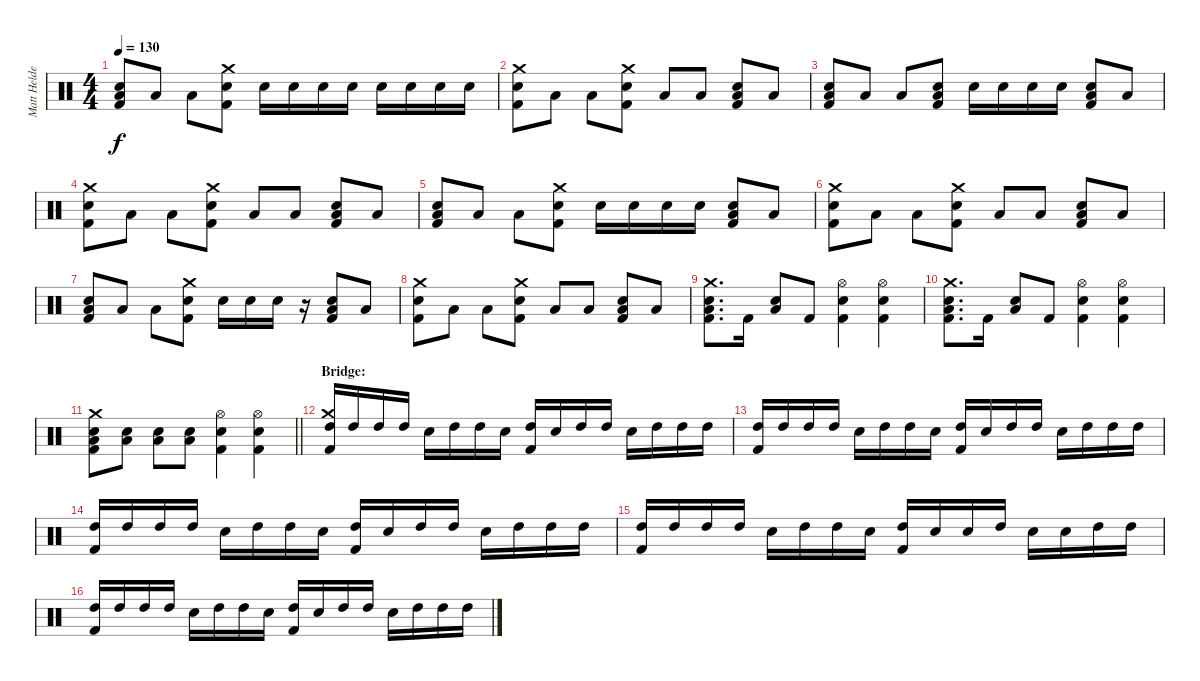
\track ("Matt Helders (Percussion)" "Matt Helde") {instrument percussion}
\staff {score}
\articulation defaults
\ts (4 4)
\tempo 130
\clef neutral
\ks c
("Low Tom (hit)" "Snare (hit) 2" "Kick (hit) 2").8{dy f} "Low Tom (hit)".8 "Low Tom (hit)".8 ("Crash medium (hit)" "Snare (hit) 2" "Kick (hit) 2").8 "Snare (hit) 2".16 "Snare (hit) 2".16 "Snare (hit) 2".16 "Snare (hit) 2".16 "Snare (hit) 2".16 "Snare (hit) 2".16 "Snare (hit) 2".16 "Snare (hit) 2".16 |
("Crash medium (hit)" "Snare (hit) 2" "Kick (hit) 2").8 "Low Tom (hit)".8 "Low Tom (hit)".8 ("Crash medium (hit)" "Snare (hit) 2" "Kick (hit) 2").8 "Low Tom (hit)".8 "Low Tom (hit)".8 ("Low Tom (hit)" "Snare (hit) 2" "Kick (hit) 2").8 "Low Tom (hit)".8 |
("Low Tom (hit)" "Snare (hit) 2" "Kick (hit) 2").8 "Low Tom (hit)".8 "Low Tom (hit)".8 ("Low Tom (hit)" "Snare (hit) 2" "Kick (hit) 2").8 "Snare (hit) 2".16 "Snare (hit) 2".16 "Snare (hit) 2".16 "Snare (hit) 2".16 ("Low Tom (hit)" "Snare (hit) 2" "Kick (hit) 2").8 "Low Tom (hit)".8 |
("Crash medium (hit)" "Snare (hit) 2" "Kick (hit) 2").8 "Low Tom (hit)".8 "Low Tom (hit)".8 ("Crash medium (hit)" "Snare (hit) 2" "Kick (hit) 2").8 "Low Tom (hit)".8 "Low Tom (hit)".8 ("Low Tom (hit)" "Snare (hit) 2" "Kick (hit) 2").8 "Low Tom (hit)".8 |
("Low Tom (hit)" "Snare (hit) 2" "Kick (hit) 2").8 "Low Tom (hit)".8 "Low Tom (hit)".8 ("Crash medium (hit)" "Snare (hit) 2" "Kick (hit) 2").8 "Snare (hit) 2".16 "Snare (hit) 2".16 "Snare (hit) 2".16 "Snare (hit) 2".16 ("Low Tom (hit)" "Snare (hit) 2" "Kick (hit) 2").8 "Low Tom (hit)".8 |
("Crash medium (hit)" "Snare (hit) 2" "Kick (hit) 2").8 "Low Tom (hit)".8 "Low Tom (hit)".8 ("Crash medium (hit)" "Snare (hit) 2" "Kick (hit) 2").8 "Low Tom (hit)".8 "Low Tom (hit)".8 ("Low Tom (hit)" "Snare (hit) 2" "Kick (hit) 2").8 "Low Tom (hit)".8 |
("Low Tom (hit)" "Snare (hit) 2" "Kick (hit) 2").8 "Low Tom (hit)".8 "Low Tom (hit)".8 ("Crash medium (hit)" "Snare (hit) 2" "Kick (hit) 2").8 "Snare (hit) 2".16 "Snare (hit) 2".16 "Snare (hit) 2".16 r.16 ("Low Tom (hit)" "Snare (hit) 2" "Kick (hit) 2").8 "Low Tom (hit)".8 |
("Crash medium (hit)" "Snare (hit) 2" "Kick (hit) 2").8 "Low Tom (hit)".8 "Low Tom (hit)".8 ("Crash medium (hit)" "Snare (hit) 2" "Kick (hit) 2").8 "Low Tom (hit)".8 "Low Tom (hit)".8 ("Low Tom (hit)" "Snare (hit) 2" "Kick (hit) 2").8 "Low Tom (hit)".8 |
("Crash medium (hit)" "Low Tom (hit)" "Snare (hit) 2" "Kick (hit) 2").8{d} "Kick (hit) 2".16 ("Low Tom (hit)" "Snare (hit) 2").8 "Kick (hit) 2".8 ("Hi-Hat (open)" "Snare (hit) 2" "Kick (hit) 2").4 ("Hi-Hat (open)" "Snare (hit) 2" "Kick (hit) 2").4 |
("Crash medium (hit)" "Low Tom (hit)" "Snare (hit) 2" "Kick (hit) 2").8{d} "Kick (hit) 2".16 ("Low Tom (hit)" "Snare (hit) 2").8 "Kick (hit) 2".8 ("Hi-Hat (open)" "Snare (hit) 2" "Kick (hit) 2").4 ("Hi-Hat (open)" "Snare (hit) 2" "Kick (hit) 2").4 |
\barLineRight lightlight
("Crash medium (hit)" "Low Tom (hit)" "Snare (hit) 2" "Kick (hit) 2").8 ("Low Tom (hit)" "Snare (hit) 2").8 ("Low Tom (hit)" "Snare (hit) 2").8 ("Low Tom (hit)" "Snare (hit) 2").8 ("Hi-Hat (open)" "Snare (hit) 2" "Kick (hit) 2").4 ("Hi-Hat (open)" "Snare (hit) 2" "Kick (hit) 2").4 |
\section ("" "Bridge:")
("Crash medium (hit)" "High Tom (hit)" "Kick (hit) 2").16 "High Tom (hit)".16 "High Tom (hit)".16 "High Tom (hit)".16 "Snare (hit) 2".16 "High Tom (hit)".16 "High Tom (hit)".16 "Snare (hit) 2".16 ("High Tom (hit)" "Kick (hit) 2").16 "Snare (hit) 2".16 "High Tom (hit)".16 "High Tom (hit)".16 "Snare (hit) 2".16 "High Tom (hit)".16 "High Tom (hit)".16 "High Tom (hit)".16 |
("High Tom (hit)" "Kick (hit) 2").16 "High Tom (hit)".16 "High Tom (hit)".16 "High Tom (hit)".16 "Snare (hit) 2".16 "High Tom (hit)".16 "High Tom (hit)".16 "Snare (hit) 2".16 ("High Tom (hit)" "Kick (hit) 2").16 "Snare (hit) 2".16 "High Tom (hit)".16 "High Tom (hit)".16 "Snare (hit) 2".16 "High Tom (hit)".16 "High Tom (hit)".16 "High Tom (hit)".16 |
("High Tom (hit)" "Kick (hit) 2").16 "High Tom (hit)".16 "High Tom (hit)".16 "High Tom (hit)".16 "Snare (hit) 2".16 "High Tom (hit)".16 "High Tom (hit)".16 "Snare (hit) 2".16 ("High Tom (hit)" "Kick (hit) 2").16 "Snare (hit) 2".16 "High Tom (hit)".16 "High Tom (hit)".16 "Snare (hit) 2".16 "High Tom (hit)".16 "High Tom (hit)".16 "High Tom (hit)".16 |
("High Tom (hit)" "Kick (hit) 2").16 "High Tom (hit)".16 "High Tom (hit)".16 "High Tom (hit)".16 "Snare (hit) 2".16 "High Tom (hit)".16 "High Tom (hit)".16 "Snare (hit) 2".16 ("High Tom (hit)" "Kick (hit) 2").16 "Snare (hit) 2".16 "Snare (hit) 2".16 "High Tom (hit)".16 "Snare (hit) 2".16 "Snare (hit) 2".16 "High Tom (hit)".16 "High Tom (hit)".16 |
("High Tom (hit)" "Kick (hit) 2").16 "High Tom (hit)".16 "High Tom (hit)".16 "High Tom (hit)".16 "Snare (hit) 2".16 "High Tom (hit)".16 "High Tom (hit)".16 "Snare (hit) 2".16 ("High Tom (hit)" "Kick (hit) 2").16 "Snare (hit) 2".16 "High Tom (hit)".16 "High Tom (hit)".16 "Snare (hit) 2".16 "High Tom (hit)".16 "High Tom (hit)".16 "High Tom (hit)".16
